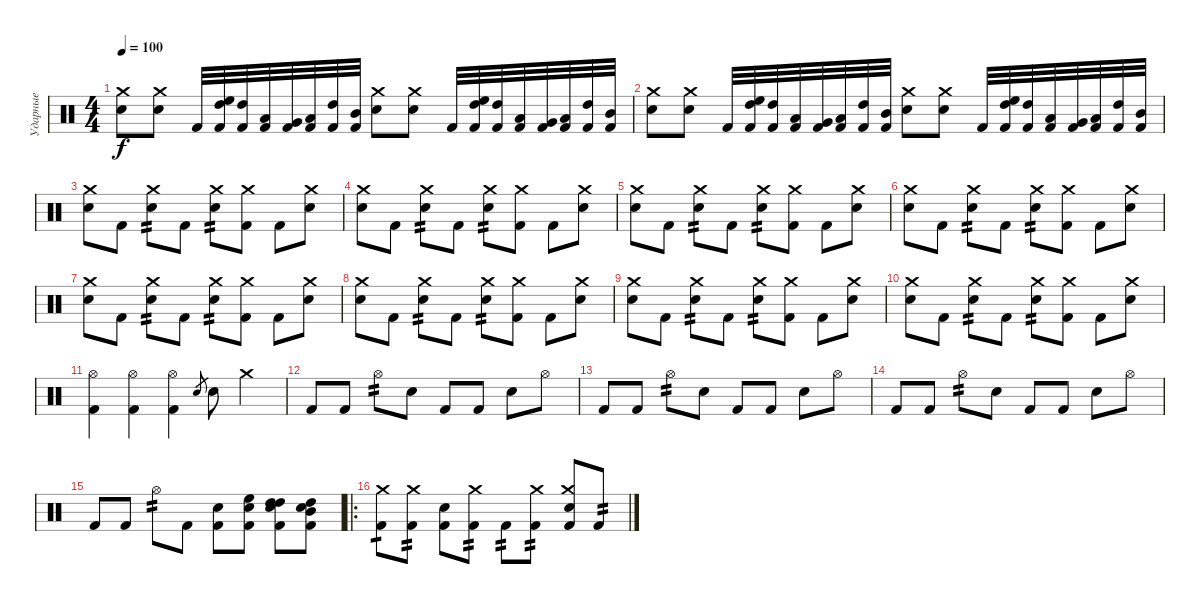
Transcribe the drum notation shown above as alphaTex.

\track ("Ударные" "Ударные") {instrument percussion}
\staff {score}
\articulation defaults
\ts (4 4)
\tempo 100
\clef neutral
\ks c
("Snare (hit) 2" "Crash medium (hit)").8{dy f} ("Snare (hit) 2" "Crash medium (hit)").8 "Kick (hit) 2".32 ("Kick (hit) 2" "High Floor Tom (hit)" "High Tom (hit)").32 ("Kick (hit) 2" "High Tom (hit)").32 ("Kick (hit) 2" "Low Tom (hit)").32 ("Kick (hit) 2" "Very Low Tom (hit)").32 ("Kick (hit) 2" "Low Floor Tom (hit)").32 ("Kick (hit) 2" "High Tom (hit)").32 ("Kick (hit) 2" "Mid Tom (hit)").32 ("Snare (hit) 2" "Crash medium (hit)").8 ("Snare (hit) 2" "Crash medium (hit)").8 "Kick (hit) 2".32 ("Kick (hit) 2" "High Floor Tom (hit)" "High Tom (hit)").32 ("Kick (hit) 2" "High Tom (hit)").32 ("Kick (hit) 2" "Low Tom (hit)").32 ("Kick (hit) 2" "Very Low Tom (hit)").32 ("Kick (hit) 2" "Low Floor Tom (hit)").32 ("Kick (hit) 2" "High Tom (hit)").32 ("Kick (hit) 2" "Mid Tom (hit)").32 |
("Snare (hit) 2" "Crash medium (hit)").8 ("Snare (hit) 2" "Crash medium (hit)").8 "Kick (hit) 2".32 ("Kick (hit) 2" "High Floor Tom (hit)" "High Tom (hit)").32 ("Kick (hit) 2" "High Tom (hit)").32 ("Kick (hit) 2" "Low Tom (hit)").32 ("Kick (hit) 2" "Very Low Tom (hit)").32 ("Kick (hit) 2" "Low Floor Tom (hit)").32 ("Kick (hit) 2" "High Tom (hit)").32 ("Kick (hit) 2" "Mid Tom (hit)").32 ("Snare (hit) 2" "Crash medium (hit)").8 ("Snare (hit) 2" "Crash medium (hit)").8 "Kick (hit) 2".32 ("Kick (hit) 2" "High Floor Tom (hit)" "High Tom (hit)").32 ("Kick (hit) 2" "High Tom (hit)").32 ("Kick (hit) 2" "Low Tom (hit)").32 ("Kick (hit) 2" "Very Low Tom (hit)").32 ("Kick (hit) 2" "Low Floor Tom (hit)").32 ("Kick (hit) 2" "High Tom (hit)").32 ("Kick (hit) 2" "Mid Tom (hit)").32 |
("Crash medium (hit)" "Snare (hit) 2").8 "Kick (hit) 2".8 ("Crash medium (hit)" "Snare (hit) 2").8{tp 2} "Kick (hit) 2".8 ("Snare (hit) 2" "Crash medium (hit)").8{tp 2} ("Kick (hit) 2" "Crash medium (hit)").8 "Kick (hit) 2".8 ("Snare (hit) 2" "Crash medium (hit)").8 |
("Crash medium (hit)" "Snare (hit) 2").8 "Kick (hit) 2".8 ("Crash medium (hit)" "Snare (hit) 2").8{tp 2} "Kick (hit) 2".8 ("Snare (hit) 2" "Crash medium (hit)").8{tp 2} ("Kick (hit) 2" "Crash medium (hit)").8 "Kick (hit) 2".8 ("Snare (hit) 2" "Crash medium (hit)").8 |
("Crash medium (hit)" "Snare (hit) 2").8 "Kick (hit) 2".8 ("Crash medium (hit)" "Snare (hit) 2").8{tp 2} "Kick (hit) 2".8 ("Snare (hit) 2" "Crash medium (hit)").8{tp 2} ("Kick (hit) 2" "Crash medium (hit)").8 "Kick (hit) 2".8 ("Snare (hit) 2" "Crash medium (hit)").8 |
("Crash medium (hit)" "Snare (hit) 2").8 "Kick (hit) 2".8 ("Crash medium (hit)" "Snare (hit) 2").8{tp 2} "Kick (hit) 2".8 ("Snare (hit) 2" "Crash medium (hit)").8{tp 2} ("Kick (hit) 2" "Crash medium (hit)").8 "Kick (hit) 2".8 ("Snare (hit) 2" "Crash medium (hit)").8 |
("Crash medium (hit)" "Snare (hit) 2").8 "Kick (hit) 2".8 ("Crash medium (hit)" "Snare (hit) 2").8{tp 2} "Kick (hit) 2".8 ("Snare (hit) 2" "Crash medium (hit)").8{tp 2} ("Kick (hit) 2" "Crash medium (hit)").8 "Kick (hit) 2".8 ("Snare (hit) 2" "Crash medium (hit)").8 |
("Crash medium (hit)" "Snare (hit) 2").8 "Kick (hit) 2".8 ("Crash medium (hit)" "Snare (hit) 2").8{tp 2} "Kick (hit) 2".8 ("Snare (hit) 2" "Crash medium (hit)").8{tp 2} ("Kick (hit) 2" "Crash medium (hit)").8 "Kick (hit) 2".8 ("Snare (hit) 2" "Crash medium (hit)").8 |
("Crash medium (hit)" "Snare (hit) 2").8 "Kick (hit) 2".8 ("Crash medium (hit)" "Snare (hit) 2").8{tp 2} "Kick (hit) 2".8 ("Snare (hit) 2" "Crash medium (hit)").8{tp 2} ("Kick (hit) 2" "Crash medium (hit)").8 "Kick (hit) 2".8 ("Snare (hit) 2" "Crash medium (hit)").8 |
("Crash medium (hit)" "Snare (hit) 2").8 "Kick (hit) 2".8 ("Crash medium (hit)" "Snare (hit) 2").8{tp 2} "Kick (hit) 2".8 ("Snare (hit) 2" "Crash medium (hit)").8{tp 2} ("Kick (hit) 2" "Crash medium (hit)").8 "Kick (hit) 2".8 ("Snare (hit) 2" "Crash medium (hit)").8 |
("Kick (hit) 2" "Hi-Hat (open)").4 ("Kick (hit) 2" "Hi-Hat (open)").4 ("Kick (hit) 2" "Hi-Hat (open)").4 "Snare (hit) 2".8{gr} "Snare (hit) 2".8 "Crash medium (hit)".4 |
"Kick (hit) 2".8 "Kick (hit) 2".8 "Hi-Hat (open)".8{tp 2} "Snare (hit) 2".8 "Kick (hit) 2".8 "Kick (hit) 2".8 "Snare (hit) 2".8 "Hi-Hat (open)".8 |
"Kick (hit) 2".8 "Kick (hit) 2".8 "Hi-Hat (open)".8{tp 2} "Snare (hit) 2".8 "Kick (hit) 2".8 "Kick (hit) 2".8 "Snare (hit) 2".8 "Hi-Hat (open)".8 |
"Kick (hit) 2".8 "Kick (hit) 2".8 "Hi-Hat (open)".8{tp 2} "Snare (hit) 2".8 "Kick (hit) 2".8 "Kick (hit) 2".8 "Snare (hit) 2".8 "Hi-Hat (open)".8 |
"Kick (hit) 2".8 "Kick (hit) 2".8 "Hi-Hat (open)".8{tp 2} "Kick (hit) 2".8 ("Kick (hit) 2" "Snare (hit) 2").8 ("Kick (hit) 2" "Snare (hit) 2" "High Floor Tom (hit)").8 ("Kick (hit) 2" "Snare (hit) 2" "High Tom (hit)" "High Tom (hit)").8 ("Kick (hit) 2" "Snare (hit) 2" "Mid Tom (hit)" "High Tom (hit)").8 |
\ro
("Kick (hit) 2" "Crash medium (hit)").8{tp 1} ("Kick (hit) 2" "Crash medium (hit)").8{tp 2} ("Kick (hit) 2" "Snare (hit) 2").8 ("Kick (hit) 2" "Crash medium (hit)").8{tp 2} "Kick (hit) 2".8{tp 2} ("Kick (hit) 2" "Crash medium (hit)").8{tp 2} ("Kick (hit) 2" "Snare (hit) 2" "Crash medium (hit)").8 "Kick (hit) 2".8{tp 2}
